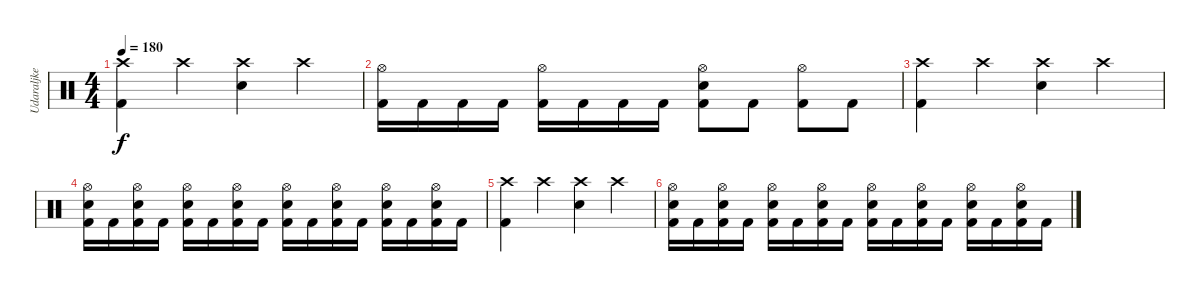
\track ("Udaraljke" "Udaraljke") {instrument percussion}
\staff {score}
\articulation defaults
\ts (4 4)
\tempo 180
\clef neutral
\ks c
("Crash high (hit)" "Kick (hit) 2").4{dy f} "Crash high (hit)".4 ("Crash high (hit)" "Electric Snare (hit)").4 "Crash high (hit)".4 |
("Hi-Hat (open)" "Kick (hit) 2").16 "Kick (hit) 2".16 "Kick (hit) 2".16 "Kick (hit) 2".16 ("Hi-Hat (open)" "Kick (hit) 2").16 "Kick (hit) 2".16 "Kick (hit) 2".16 "Kick (hit) 2".16 ("Hi-Hat (open)" "Electric Snare (hit)" "Kick (hit) 2").8 "Kick (hit) 2".8 ("Hi-Hat (open)" "Kick (hit) 2").8 "Kick (hit) 2".8 |
("Crash high (hit)" "Kick (hit) 2").4 "Crash high (hit)".4 ("Crash high (hit)" "Electric Snare (hit)").4 "Crash high (hit)".4 |
("Electric Snare (hit)" "Hi-Hat (open)" "Kick (hit) 2").16 "Kick (hit) 2".16 ("Electric Snare (hit)" "Hi-Hat (open)" "Kick (hit) 2").16 "Kick (hit) 2".16 ("Electric Snare (hit)" "Hi-Hat (open)" "Kick (hit) 2").16 "Kick (hit) 2".16 ("Electric Snare (hit)" "Hi-Hat (open)" "Kick (hit) 2").16 "Kick (hit) 2".16 ("Electric Snare (hit)" "Hi-Hat (open)" "Kick (hit) 2").16 "Kick (hit) 2".16 ("Electric Snare (hit)" "Hi-Hat (open)" "Kick (hit) 2").16 "Kick (hit) 2".16 ("Electric Snare (hit)" "Hi-Hat (open)" "Kick (hit) 2").16 "Kick (hit) 2".16 ("Electric Snare (hit)" "Hi-Hat (open)" "Kick (hit) 2").16 "Kick (hit) 2".16 |
("Crash high (hit)" "Kick (hit) 2").4 "Crash high (hit)".4 ("Crash high (hit)" "Electric Snare (hit)").4 "Crash high (hit)".4 |
("Electric Snare (hit)" "Hi-Hat (open)" "Kick (hit) 2").16 "Kick (hit) 2".16 ("Electric Snare (hit)" "Hi-Hat (open)" "Kick (hit) 2").16 "Kick (hit) 2".16 ("Electric Snare (hit)" "Hi-Hat (open)" "Kick (hit) 2").16 "Kick (hit) 2".16 ("Electric Snare (hit)" "Hi-Hat (open)" "Kick (hit) 2").16 "Kick (hit) 2".16 ("Electric Snare (hit)" "Hi-Hat (open)" "Kick (hit) 2").16 "Kick (hit) 2".16 ("Electric Snare (hit)" "Hi-Hat (open)" "Kick (hit) 2").16 "Kick (hit) 2".16 ("Electric Snare (hit)" "Hi-Hat (open)" "Kick (hit) 2").16 "Kick (hit) 2".16 ("Electric Snare (hit)" "Hi-Hat (open)" "Kick (hit) 2").16 "Kick (hit) 2".16
